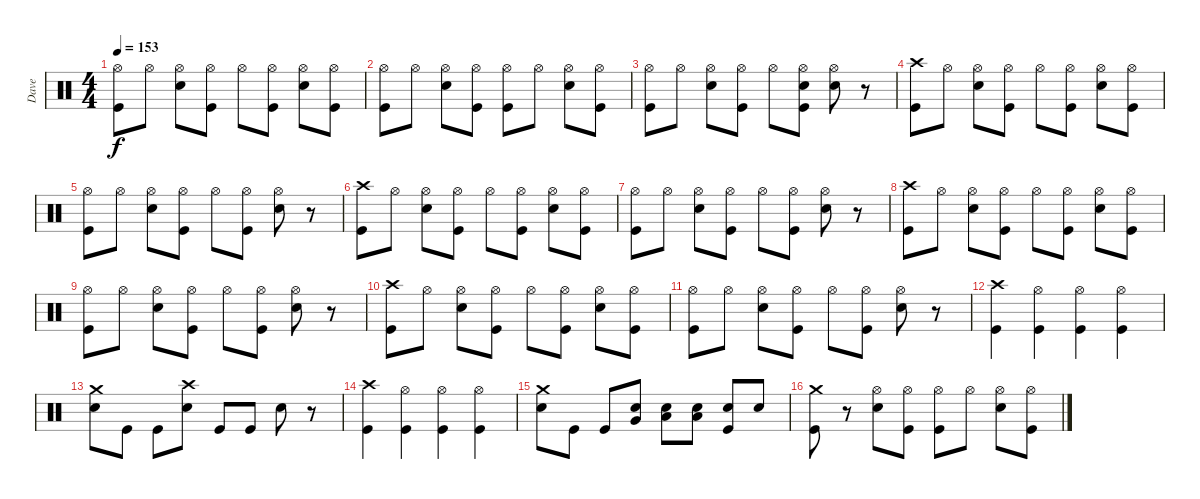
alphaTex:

\track ("Dave" "Dave") {solo instrument percussion}
\staff {score}
\articulation defaults
\ts (4 4)
\tempo 153
\clef neutral
\ks c
("Hi-Hat (open)" "Kick (hit)").8{dy f} "Hi-Hat (open)".8 ("Hi-Hat (open)" "Snare (hit) 2").8 ("Hi-Hat (open)" "Kick (hit)").8 "Hi-Hat (open)".8 ("Hi-Hat (open)" "Kick (hit)").8 ("Hi-Hat (open)" "Snare (hit) 2").8 ("Hi-Hat (open)" "Kick (hit)").8 |
("Hi-Hat (open)" "Kick (hit)").8 "Hi-Hat (open)".8 ("Hi-Hat (open)" "Snare (hit) 2").8 ("Hi-Hat (open)" "Kick (hit)").8 ("Hi-Hat (open)" "Kick (hit)").8 "Hi-Hat (open)".8 ("Hi-Hat (open)" "Snare (hit) 2").8 ("Hi-Hat (open)" "Kick (hit)").8 |
("Hi-Hat (open)" "Kick (hit)").8 "Hi-Hat (open)".8 ("Hi-Hat (open)" "Snare (hit) 2").8 ("Hi-Hat (open)" "Kick (hit)").8 "Hi-Hat (open)".8 ("Hi-Hat (open)" "Snare (hit) 2" "Kick (hit)").8 ("Hi-Hat (open)" "Snare (hit) 2").8 r.8 |
("Crash high (hit)" "Kick (hit)").8 "Hi-Hat (open)".8 ("Hi-Hat (open)" "Snare (hit) 2").8 ("Hi-Hat (open)" "Kick (hit)").8 "Hi-Hat (open)".8 ("Hi-Hat (open)" "Kick (hit)").8 ("Hi-Hat (open)" "Snare (hit) 2").8 ("Hi-Hat (open)" "Kick (hit)").8 |
("Hi-Hat (open)" "Kick (hit)").8 "Hi-Hat (open)".8 ("Hi-Hat (open)" "Snare (hit) 2").8 ("Hi-Hat (open)" "Kick (hit)").8 "Hi-Hat (open)".8 ("Hi-Hat (open)" "Kick (hit)").8 ("Hi-Hat (open)" "Snare (hit) 2").8 r.8 |
("Crash high (hit)" "Kick (hit)").8 "Hi-Hat (open)".8 ("Hi-Hat (open)" "Snare (hit) 2").8 ("Hi-Hat (open)" "Kick (hit)").8 "Hi-Hat (open)".8 ("Hi-Hat (open)" "Kick (hit)").8 ("Hi-Hat (open)" "Snare (hit) 2").8 ("Hi-Hat (open)" "Kick (hit)").8 |
("Hi-Hat (open)" "Kick (hit)").8 "Hi-Hat (open)".8 ("Hi-Hat (open)" "Snare (hit) 2").8 ("Hi-Hat (open)" "Kick (hit)").8 "Hi-Hat (open)".8 ("Hi-Hat (open)" "Kick (hit)").8 ("Hi-Hat (open)" "Snare (hit) 2").8 r.8 |
("Crash high (hit)" "Kick (hit)").8 "Hi-Hat (open)".8 ("Hi-Hat (open)" "Snare (hit) 2").8 ("Hi-Hat (open)" "Kick (hit)").8 "Hi-Hat (open)".8 ("Hi-Hat (open)" "Kick (hit)").8 ("Hi-Hat (open)" "Snare (hit) 2").8 ("Hi-Hat (open)" "Kick (hit)").8 |
("Hi-Hat (open)" "Kick (hit)").8 "Hi-Hat (open)".8 ("Hi-Hat (open)" "Snare (hit) 2").8 ("Hi-Hat (open)" "Kick (hit)").8 "Hi-Hat (open)".8 ("Hi-Hat (open)" "Kick (hit)").8 ("Hi-Hat (open)" "Snare (hit) 2").8 r.8 |
("Crash high (hit)" "Kick (hit)").8 "Hi-Hat (open)".8 ("Hi-Hat (open)" "Snare (hit) 2").8 ("Hi-Hat (open)" "Kick (hit)").8 "Hi-Hat (open)".8 ("Hi-Hat (open)" "Kick (hit)").8 ("Hi-Hat (open)" "Snare (hit) 2").8 ("Hi-Hat (open)" "Kick (hit)").8 |
("Hi-Hat (open)" "Kick (hit)").8 "Hi-Hat (open)".8 ("Hi-Hat (open)" "Snare (hit) 2").8 ("Hi-Hat (open)" "Kick (hit)").8 "Hi-Hat (open)".8 ("Hi-Hat (open)" "Kick (hit)").8 ("Hi-Hat (open)" "Snare (hit) 2").8 r.8 |
("Crash high (hit)" "Kick (hit)").4 ("Hi-Hat (open)" "Kick (hit)").4 ("Hi-Hat (open)" "Kick (hit)").4 ("Hi-Hat (open)" "Kick (hit)").4 |
("Crash medium (hit)" "Snare (hit) 2").8 "Kick (hit)".8 "Kick (hit)".8 ("Crash high (hit)" "Snare (hit) 2").8 "Kick (hit)".8 "Kick (hit)".8 "Snare (hit) 2".8 r.8 |
("Crash high (hit)" "Kick (hit)").4 ("Hi-Hat (open)" "Kick (hit)").4 ("Hi-Hat (open)" "Kick (hit)").4 ("Hi-Hat (open)" "Kick (hit)").4 |
("Crash medium (hit)" "Snare (hit) 2").8 "Kick (hit)".8 "Kick (hit)".8 ("Snare (hit) 2" "Very Low Tom (hit)").8 ("Snare (hit) 2" "Low Tom (hit)").8 ("Snare (hit) 2" "Low Tom (hit)").8 ("Snare (hit) 2" "Kick (hit)").8 "Snare (hit) 2".8 |
("Crash medium (hit)" "Kick (hit)").8 r.8 ("Hi-Hat (open)" "Snare (hit) 2").8 ("Hi-Hat (open)" "Kick (hit)").8 ("Hi-Hat (open)" "Kick (hit)").8 "Hi-Hat (open)".8 ("Hi-Hat (open)" "Snare (hit) 2").8 ("Hi-Hat (open)" "Kick (hit)").8
